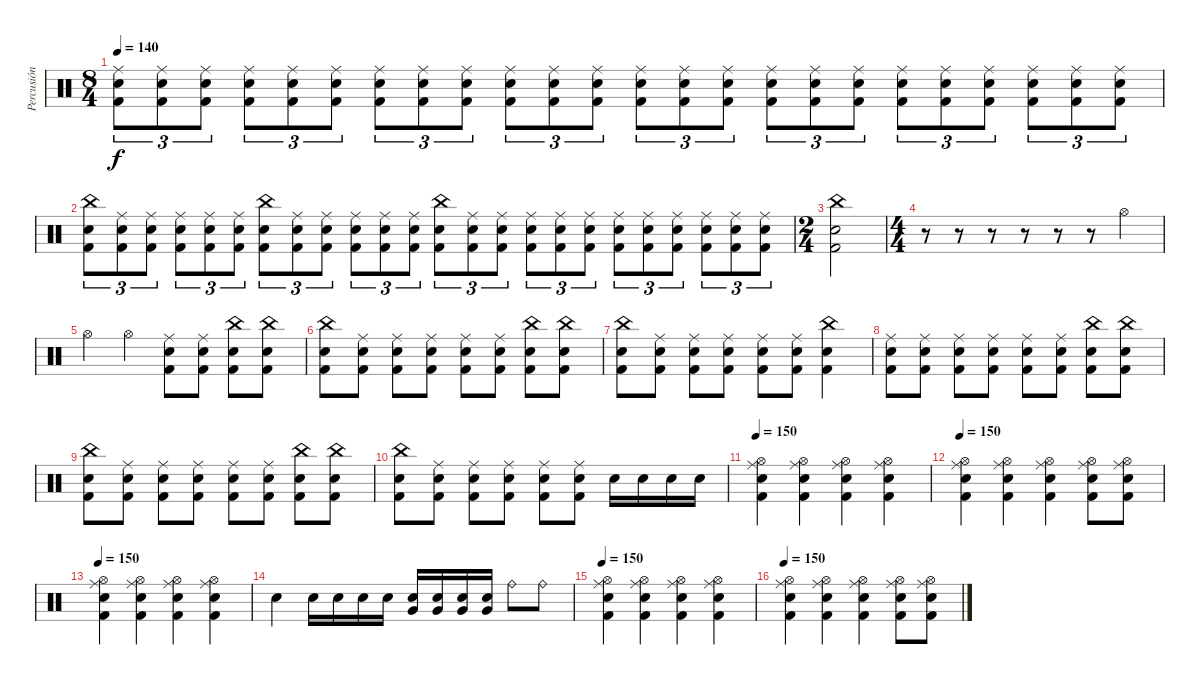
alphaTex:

\track ("Percusión" "Percusión") {instrument percussion}
\staff {score}
\articulation defaults
\ts (8 4)
\tempo 140
\clef neutral
\ks c
("Ride (middle)" "Electric Snare (hit)" "Kick (hit) 2").8{tu (3 2) dy f} ("Ride (middle)" "Electric Snare (hit)" "Kick (hit) 2").8{tu (3 2)} ("Ride (middle)" "Electric Snare (hit)" "Kick (hit) 2").8{tu (3 2)} ("Ride (middle)" "Electric Snare (hit)" "Kick (hit) 2").8{tu (3 2)} ("Ride (middle)" "Electric Snare (hit)" "Kick (hit) 2").8{tu (3 2)} ("Ride (middle)" "Electric Snare (hit)" "Kick (hit) 2").8{tu (3 2)} ("Ride (middle)" "Electric Snare (hit)" "Kick (hit) 2").8{tu (3 2)} ("Ride (middle)" "Electric Snare (hit)" "Kick (hit) 2").8{tu (3 2)} ("Ride (middle)" "Electric Snare (hit)" "Kick (hit) 2").8{tu (3 2)} ("Ride (middle)" "Electric Snare (hit)" "Kick (hit) 2").8{tu (3 2)} ("Ride (middle)" "Electric Snare (hit)" "Kick (hit) 2").8{tu (3 2)} ("Ride (middle)" "Electric Snare (hit)" "Kick (hit) 2").8{tu (3 2)} ("Ride (middle)" "Electric Snare (hit)" "Kick (hit) 2").8{tu (3 2)} ("Ride (middle)" "Electric Snare (hit)" "Kick (hit) 2").8{tu (3 2)} ("Ride (middle)" "Electric Snare (hit)" "Kick (hit) 2").8{tu (3 2)} ("Ride (middle)" "Electric Snare (hit)" "Kick (hit) 2").8{tu (3 2)} ("Ride (middle)" "Electric Snare (hit)" "Kick (hit) 2").8{tu (3 2)} ("Ride (middle)" "Electric Snare (hit)" "Kick (hit) 2").8{tu (3 2)} ("Ride (middle)" "Electric Snare (hit)" "Kick (hit) 2").8{tu (3 2)} ("Ride (middle)" "Electric Snare (hit)" "Kick (hit) 2").8{tu (3 2)} ("Ride (middle)" "Electric Snare (hit)" "Kick (hit) 2").8{tu (3 2)} ("Ride (middle)" "Electric Snare (hit)" "Kick (hit) 2").8{tu (3 2)} ("Ride (middle)" "Electric Snare (hit)" "Kick (hit) 2").8{tu (3 2)} ("Ride (middle)" "Electric Snare (hit)" "Kick (hit) 2").8{tu (3 2)} |
("China (hit)" "Electric Snare (hit)" "Kick (hit) 2").8{tu (3 2)} ("Ride (middle)" "Electric Snare (hit)" "Kick (hit) 2").8{tu (3 2)} ("Ride (middle)" "Electric Snare (hit)" "Kick (hit) 2").8{tu (3 2)} ("Ride (middle)" "Electric Snare (hit)" "Kick (hit) 2").8{tu (3 2)} ("Ride (middle)" "Electric Snare (hit)" "Kick (hit) 2").8{tu (3 2)} ("Ride (middle)" "Electric Snare (hit)" "Kick (hit) 2").8{tu (3 2)} ("China (hit)" "Electric Snare (hit)" "Kick (hit) 2").8{tu (3 2)} ("Ride (middle)" "Electric Snare (hit)" "Kick (hit) 2").8{tu (3 2)} ("Ride (middle)" "Electric Snare (hit)" "Kick (hit) 2").8{tu (3 2)} ("Ride (middle)" "Electric Snare (hit)" "Kick (hit) 2").8{tu (3 2)} ("Ride (middle)" "Electric Snare (hit)" "Kick (hit) 2").8{tu (3 2)} ("Ride (middle)" "Electric Snare (hit)" "Kick (hit) 2").8{tu (3 2)} ("China (hit)" "Electric Snare (hit)" "Kick (hit) 2").8{tu (3 2)} ("Ride (middle)" "Electric Snare (hit)" "Kick (hit) 2").8{tu (3 2)} ("Ride (middle)" "Electric Snare (hit)" "Kick (hit) 2").8{tu (3 2)} ("Ride (middle)" "Electric Snare (hit)" "Kick (hit) 2").8{tu (3 2)} ("Ride (middle)" "Electric Snare (hit)" "Kick (hit) 2").8{tu (3 2)} ("Ride (middle)" "Electric Snare (hit)" "Kick (hit) 2").8{tu (3 2)} ("Ride (middle)" "Electric Snare (hit)" "Kick (hit) 2").8{tu (3 2)} ("Ride (middle)" "Electric Snare (hit)" "Kick (hit) 2").8{tu (3 2)} ("Ride (middle)" "Electric Snare (hit)" "Kick (hit) 2").8{tu (3 2)} ("Ride (middle)" "Electric Snare (hit)" "Kick (hit) 2").8{tu (3 2)} ("Ride (middle)" "Electric Snare (hit)" "Kick (hit) 2").8{tu (3 2)} ("Ride (middle)" "Electric Snare (hit)" "Kick (hit) 2").8{tu (3 2)} |
\ts (2 4)
("China (hit)" "Electric Snare (hit)" "Kick (hit) 2").2 |
\ts (4 4)
r.8 r.8 r.8 r.8 r.8 r.8 "Hi-Hat (open)".4 |
"Hi-Hat (open)".4 "Hi-Hat (open)".4 ("Ride (middle)" "Electric Snare (hit)" "Kick (hit) 2").8 ("Ride (middle)" "Electric Snare (hit)" "Kick (hit) 2").8 ("China (hit)" "Electric Snare (hit)" "Kick (hit) 2").8 ("China (hit)" "Electric Snare (hit)" "Kick (hit) 2").8 |
("China (hit)" "Electric Snare (hit)" "Kick (hit) 2").8 ("Ride (middle)" "Electric Snare (hit)" "Kick (hit) 2").8 ("Ride (middle)" "Electric Snare (hit)" "Kick (hit) 2").8 ("Ride (middle)" "Electric Snare (hit)" "Kick (hit) 2").8 ("Ride (middle)" "Electric Snare (hit)" "Kick (hit) 2").8 ("Ride (middle)" "Electric Snare (hit)" "Kick (hit) 2").8 ("China (hit)" "Electric Snare (hit)" "Kick (hit) 2").8 ("China (hit)" "Electric Snare (hit)" "Kick (hit) 2").8 |
("China (hit)" "Electric Snare (hit)" "Kick (hit) 2").8 ("Ride (middle)" "Electric Snare (hit)" "Kick (hit) 2").8 ("Ride (middle)" "Electric Snare (hit)" "Kick (hit) 2").8 ("Ride (middle)" "Electric Snare (hit)" "Kick (hit) 2").8 ("Ride (middle)" "Electric Snare (hit)" "Kick (hit) 2").8 ("Ride (middle)" "Electric Snare (hit)" "Kick (hit) 2").8 ("China (hit)" "Electric Snare (hit)" "Kick (hit) 2").4 |
("Ride (middle)" "Electric Snare (hit)" "Kick (hit) 2").8 ("Ride (middle)" "Electric Snare (hit)" "Kick (hit) 2").8 ("Ride (middle)" "Electric Snare (hit)" "Kick (hit) 2").8 ("Ride (middle)" "Electric Snare (hit)" "Kick (hit) 2").8 ("Ride (middle)" "Electric Snare (hit)" "Kick (hit) 2").8 ("Ride (middle)" "Electric Snare (hit)" "Kick (hit) 2").8 ("China (hit)" "Electric Snare (hit)" "Kick (hit) 2").8 ("China (hit)" "Electric Snare (hit)" "Kick (hit) 2").8 |
("China (hit)" "Electric Snare (hit)" "Kick (hit) 2").8 ("Ride (middle)" "Electric Snare (hit)" "Kick (hit) 2").8 ("Ride (middle)" "Electric Snare (hit)" "Kick (hit) 2").8 ("Ride (middle)" "Electric Snare (hit)" "Kick (hit) 2").8 ("Ride (middle)" "Electric Snare (hit)" "Kick (hit) 2").8 ("Ride (middle)" "Electric Snare (hit)" "Kick (hit) 2").8 ("China (hit)" "Electric Snare (hit)" "Kick (hit) 2").8 ("China (hit)" "Electric Snare (hit)" "Kick (hit) 2").8 |
("China (hit)" "Electric Snare (hit)" "Kick (hit) 2").8 ("Ride (middle)" "Electric Snare (hit)" "Kick (hit) 2").8 ("Ride (middle)" "Electric Snare (hit)" "Kick (hit) 2").8 ("Ride (middle)" "Electric Snare (hit)" "Kick (hit) 2").8 ("Ride (middle)" "Electric Snare (hit)" "Kick (hit) 2").8 ("Ride (middle)" "Electric Snare (hit)" "Kick (hit) 2").8 "Electric Snare (hit)".16 "Electric Snare (hit)".16 "Electric Snare (hit)".16 "Electric Snare (hit)".16 |
\tempo 150
("Ride (middle)" "Hi-Hat (open)" "Electric Snare (hit)" "Kick (hit) 2").4 ("Ride (middle)" "Hi-Hat (open)" "Electric Snare (hit)" "Kick (hit) 2").4 ("Ride (middle)" "Hi-Hat (open)" "Electric Snare (hit)" "Kick (hit) 2").4 ("Ride (middle)" "Hi-Hat (open)" "Electric Snare (hit)" "Kick (hit) 2").4 |
\tempo 150
("Ride (middle)" "Hi-Hat (open)" "Electric Snare (hit)" "Kick (hit) 2").4 ("Ride (middle)" "Hi-Hat (open)" "Electric Snare (hit)" "Kick (hit) 2").4 ("Ride (middle)" "Hi-Hat (open)" "Electric Snare (hit)" "Kick (hit) 2").4 ("Ride (middle)" "Hi-Hat (open)" "Electric Snare (hit)" "Kick (hit) 2").8 ("Ride (middle)" "Hi-Hat (open)" "Electric Snare (hit)" "Kick (hit) 2").8 |
\tempo 150
("Ride (middle)" "Hi-Hat (open)" "Electric Snare (hit)" "Kick (hit) 2").4 ("Ride (middle)" "Hi-Hat (open)" "Electric Snare (hit)" "Kick (hit) 2").4 ("Ride (middle)" "Hi-Hat (open)" "Electric Snare (hit)" "Kick (hit) 2").4 ("Ride (middle)" "Hi-Hat (open)" "Electric Snare (hit)" "Kick (hit) 2").4 |
"Electric Snare (hit)".4 "Electric Snare (hit)".16 "Electric Snare (hit)".16 "Electric Snare (hit)".16 "Electric Snare (hit)".16 ("Snare (hit) 2" "Very Low Tom (hit)").16 ("Snare (hit) 2" "Very Low Tom (hit)").16 ("Snare (hit) 2" "Very Low Tom (hit)").16 ("Snare (hit) 2" "Very Low Tom (hit)").16 "Ride (bell)".8 "Ride (bell)".8 |
\tempo 150
("Ride (middle)" "Hi-Hat (open)" "Electric Snare (hit)" "Kick (hit) 2").4 ("Ride (middle)" "Hi-Hat (open)" "Electric Snare (hit)" "Kick (hit) 2").4 ("Ride (middle)" "Hi-Hat (open)" "Electric Snare (hit)" "Kick (hit) 2").4 ("Ride (middle)" "Hi-Hat (open)" "Electric Snare (hit)" "Kick (hit) 2").4 |
\tempo 150
("Ride (middle)" "Hi-Hat (open)" "Electric Snare (hit)" "Kick (hit) 2").4 ("Ride (middle)" "Hi-Hat (open)" "Electric Snare (hit)" "Kick (hit) 2").4 ("Ride (middle)" "Hi-Hat (open)" "Electric Snare (hit)" "Kick (hit) 2").4 ("Ride (middle)" "Hi-Hat (open)" "Electric Snare (hit)" "Kick (hit) 2").8 ("Ride (middle)" "Hi-Hat (open)" "Electric Snare (hit)" "Kick (hit) 2").8
